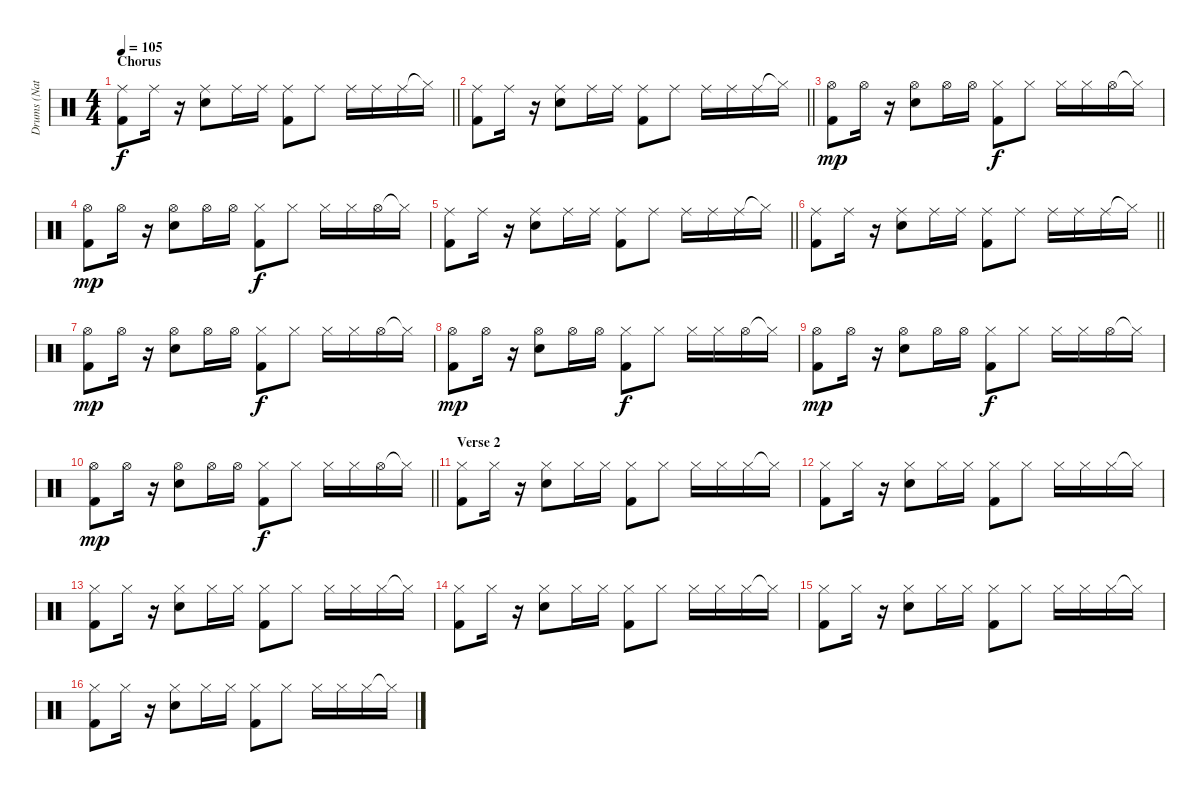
\track ("Drums (Nathan)" "Drums (Nat") {instrument percussion}
\staff {score}
\articulation defaults
\ts (4 4)
\section ("" "Chorus")
\tempo 105
\clef neutral
\barLineRight lightlight
\ks c
("Ride (middle)" "Kick (hit) 2").8{dy f} "Ride (middle)".16 r.16 ("Ride (middle)" "Electric Snare (hit)").8 "Ride (middle)".16 "Ride (middle)".16 ("Ride (middle)" "Kick (hit) 2").8 "Ride (middle)".8 "Ride (middle)".16 "Ride (middle)".16 "Ride (middle)".16 "Hi-Hat (closed)"{t}.16 |
\barLineRight lightlight
("Ride (middle)" "Kick (hit) 2").8 "Ride (middle)".16 r.16 ("Ride (middle)" "Electric Snare (hit)").8 "Ride (middle)".16 "Ride (middle)".16 ("Ride (middle)" "Kick (hit) 2").8 "Ride (middle)".8 "Ride (middle)".16 "Ride (middle)".16 "Ride (middle)".16 "Hi-Hat (closed)"{t}.16 |
("Hi-Hat (open)" "Kick (hit) 2").8{dy mp} "Hi-Hat (open)".16 r.16 ("Hi-Hat (open)" "Electric Snare (hit)").8 "Hi-Hat (open)".16 "Hi-Hat (open)".16 ("Hi-Hat (closed)" "Kick (hit) 2").8{dy f} "Hi-Hat (closed)".8 "Hi-Hat (closed)".16 "Hi-Hat (closed)".16 "Hi-Hat (open)".16 "Hi-Hat (closed)"{t}.16 |
("Hi-Hat (open)" "Kick (hit) 2").8{dy mp} "Hi-Hat (open)".16 r.16 ("Hi-Hat (open)" "Electric Snare (hit)").8 "Hi-Hat (open)".16 "Hi-Hat (open)".16 ("Hi-Hat (closed)" "Kick (hit) 2").8{dy f} "Hi-Hat (closed)".8 "Hi-Hat (closed)".16 "Hi-Hat (closed)".16 "Hi-Hat (open)".16 "Hi-Hat (closed)"{t}.16 |
\barLineRight lightlight
("Ride (middle)" "Kick (hit) 2").8 "Ride (middle)".16 r.16 ("Ride (middle)" "Electric Snare (hit)").8 "Ride (middle)".16 "Ride (middle)".16 ("Ride (middle)" "Kick (hit) 2").8 "Ride (middle)".8 "Ride (middle)".16 "Ride (middle)".16 "Ride (middle)".16 "Hi-Hat (closed)"{t}.16 |
\barLineRight lightlight
("Ride (middle)" "Kick (hit) 2").8 "Ride (middle)".16 r.16 ("Ride (middle)" "Electric Snare (hit)").8 "Ride (middle)".16 "Ride (middle)".16 ("Ride (middle)" "Kick (hit) 2").8 "Ride (middle)".8 "Ride (middle)".16 "Ride (middle)".16 "Ride (middle)".16 "Hi-Hat (closed)"{t}.16 |
("Hi-Hat (open)" "Kick (hit) 2").8{dy mp} "Hi-Hat (open)".16 r.16 ("Hi-Hat (open)" "Electric Snare (hit)").8 "Hi-Hat (open)".16 "Hi-Hat (open)".16 ("Hi-Hat (closed)" "Kick (hit) 2").8{dy f} "Hi-Hat (closed)".8 "Hi-Hat (closed)".16 "Hi-Hat (closed)".16 "Hi-Hat (open)".16 "Hi-Hat (closed)"{t}.16 |
("Hi-Hat (open)" "Kick (hit) 2").8{dy mp} "Hi-Hat (open)".16 r.16 ("Hi-Hat (open)" "Electric Snare (hit)").8 "Hi-Hat (open)".16 "Hi-Hat (open)".16 ("Hi-Hat (closed)" "Kick (hit) 2").8{dy f} "Hi-Hat (closed)".8 "Hi-Hat (closed)".16 "Hi-Hat (closed)".16 "Hi-Hat (open)".16 "Hi-Hat (closed)"{t}.16 |
("Hi-Hat (open)" "Kick (hit) 2").8{dy mp} "Hi-Hat (open)".16 r.16 ("Hi-Hat (open)" "Electric Snare (hit)").8 "Hi-Hat (open)".16 "Hi-Hat (open)".16 ("Hi-Hat (closed)" "Kick (hit) 2").8{dy f} "Hi-Hat (closed)".8 "Hi-Hat (closed)".16 "Hi-Hat (closed)".16 "Hi-Hat (open)".16 "Hi-Hat (closed)"{t}.16 |
\barLineRight lightlight
("Hi-Hat (open)" "Kick (hit) 2").8{dy mp} "Hi-Hat (open)".16 r.16 ("Hi-Hat (open)" "Electric Snare (hit)").8 "Hi-Hat (open)".16 "Hi-Hat (open)".16 ("Hi-Hat (closed)" "Kick (hit) 2").8{dy f} "Hi-Hat (closed)".8 "Hi-Hat (closed)".16 "Hi-Hat (closed)".16 "Hi-Hat (open)".16 "Hi-Hat (closed)"{t}.16 |
\section ("" "Verse 2")
("Hi-Hat (closed)" "Kick (hit) 2").8 "Hi-Hat (closed)".16 r.16 ("Hi-Hat (closed)" "Electric Snare (hit)").8 "Hi-Hat (closed)".16 "Hi-Hat (closed)".16 ("Hi-Hat (closed)" "Kick (hit) 2").8 "Hi-Hat (closed)".8 "Hi-Hat (closed)".16 "Hi-Hat (closed)".16 "Hi-Hat (closed)".16 "Hi-Hat (closed)"{t}.16 |
("Hi-Hat (closed)" "Kick (hit) 2").8 "Hi-Hat (closed)".16 r.16 ("Hi-Hat (closed)" "Electric Snare (hit)").8 "Hi-Hat (closed)".16 "Hi-Hat (closed)".16 ("Hi-Hat (closed)" "Kick (hit) 2").8 "Hi-Hat (closed)".8 "Hi-Hat (closed)".16 "Hi-Hat (closed)".16 "Hi-Hat (closed)".16 "Hi-Hat (closed)"{t}.16 |
("Hi-Hat (closed)" "Kick (hit) 2").8 "Hi-Hat (closed)".16 r.16 ("Hi-Hat (closed)" "Electric Snare (hit)").8 "Hi-Hat (closed)".16 "Hi-Hat (closed)".16 ("Hi-Hat (closed)" "Kick (hit) 2").8 "Hi-Hat (closed)".8 "Hi-Hat (closed)".16 "Hi-Hat (closed)".16 "Hi-Hat (closed)".16 "Hi-Hat (closed)"{t}.16 |
("Hi-Hat (closed)" "Kick (hit) 2").8 "Hi-Hat (closed)".16 r.16 ("Hi-Hat (closed)" "Electric Snare (hit)").8 "Hi-Hat (closed)".16 "Hi-Hat (closed)".16 ("Hi-Hat (closed)" "Kick (hit) 2").8 "Hi-Hat (closed)".8 "Hi-Hat (closed)".16 "Hi-Hat (closed)".16 "Hi-Hat (closed)".16 "Hi-Hat (closed)"{t}.16 |
("Hi-Hat (closed)" "Kick (hit) 2").8 "Hi-Hat (closed)".16 r.16 ("Hi-Hat (closed)" "Electric Snare (hit)").8 "Hi-Hat (closed)".16 "Hi-Hat (closed)".16 ("Hi-Hat (closed)" "Kick (hit) 2").8 "Hi-Hat (closed)".8 "Hi-Hat (closed)".16 "Hi-Hat (closed)".16 "Hi-Hat (closed)".16 "Hi-Hat (closed)"{t}.16 |
("Hi-Hat (closed)" "Kick (hit) 2").8 "Hi-Hat (closed)".16 r.16 ("Hi-Hat (closed)" "Electric Snare (hit)").8 "Hi-Hat (closed)".16 "Hi-Hat (closed)".16 ("Hi-Hat (closed)" "Kick (hit) 2").8 "Hi-Hat (closed)".8 "Hi-Hat (closed)".16 "Hi-Hat (closed)".16 "Hi-Hat (closed)".16 "Hi-Hat (closed)"{t}.16
